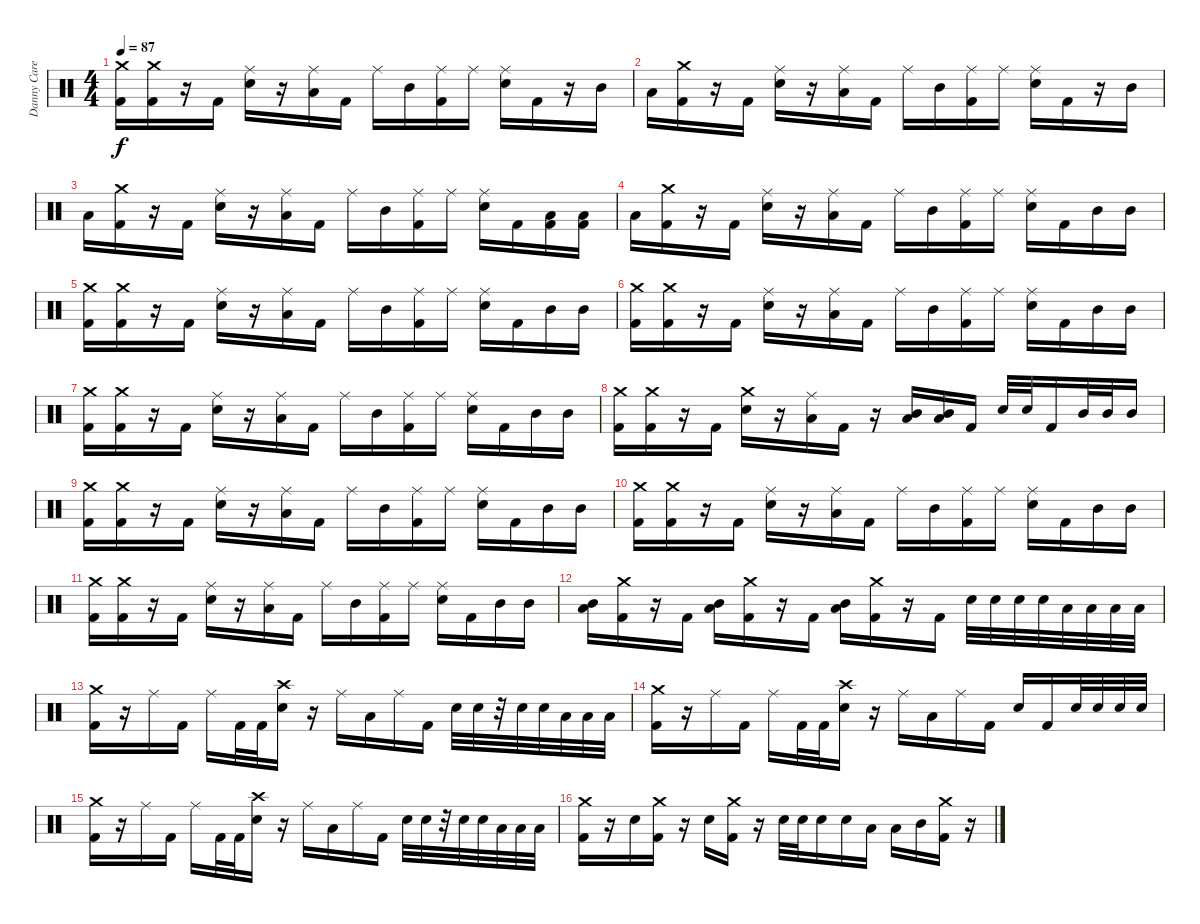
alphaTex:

\track ("Danny Carey" "Danny Care") {instrument percussion}
\staff {score}
\articulation defaults
\ts (4 4)
\tempo 87
\clef neutral
\ks c
("Crash medium (hit)" "Kick (hit) 2").16{dy f} ("Crash medium (hit)" "Kick (hit) 2").16 r.16 "Kick (hit) 2".16 ("Ride (middle)" "Snare (hit) 2").16 r.16 ("Ride (middle)" "Low Tom (hit)").16 "Kick (hit) 2".16 "Ride (middle)".16 "Mid Tom (hit)".16 ("Ride (middle)" "Kick (hit) 2").16 "Ride (middle)".16 ("Ride (middle)" "Snare (hit) 2").16 "Kick (hit) 2".16 r.16 "Mid Tom (hit)".16 |
"Low Floor Tom (hit)".16 ("Crash medium (hit)" "Kick (hit) 2").16 r.16 "Kick (hit) 2".16 ("Ride (middle)" "Snare (hit) 2").16 r.16 ("Ride (middle)" "Low Tom (hit)").16 "Kick (hit) 2".16 "Ride (middle)".16 "Mid Tom (hit)".16 ("Ride (middle)" "Kick (hit) 2").16 "Ride (middle)".16 ("Ride (middle)" "Snare (hit) 2").16 "Kick (hit) 2".16 r.16 "Mid Tom (hit)".16 |
"Low Floor Tom (hit)".16 ("Crash medium (hit)" "Kick (hit) 2").16 r.16 "Kick (hit) 2".16 ("Ride (middle)" "Snare (hit) 2").16 r.16 ("Ride (middle)" "Low Tom (hit)").16 "Kick (hit) 2".16 "Ride (middle)".16 "Mid Tom (hit)".16 ("Ride (middle)" "Kick (hit) 2").16 "Ride (middle)".16 ("Ride (middle)" "Snare (hit) 2").16 "Kick (hit) 2".16 ("Low Floor Tom (hit)" "Kick (hit) 2").16 ("Low Floor Tom (hit)" "Kick (hit) 2").16 |
"Low Floor Tom (hit)".16 ("Crash medium (hit)" "Kick (hit) 2").16 r.16 "Kick (hit) 2".16 ("Ride (middle)" "Snare (hit) 2").16 r.16 ("Ride (middle)" "Low Tom (hit)").16 "Kick (hit) 2".16 "Ride (middle)".16 "Mid Tom (hit)".16 ("Ride (middle)" "Kick (hit) 2").16 "Ride (middle)".16 ("Ride (middle)" "Snare (hit) 2").16 "Kick (hit) 2".16 "Mid Tom (hit)".16 "Mid Tom (hit)".16 |
("Crash medium (hit)" "Kick (hit) 2").16 ("Crash medium (hit)" "Kick (hit) 2").16 r.16 "Kick (hit) 2".16 ("Ride (middle)" "Snare (hit) 2").16 r.16 ("Ride (middle)" "Low Tom (hit)").16 "Kick (hit) 2".16 "Ride (middle)".16 "Mid Tom (hit)".16 ("Ride (middle)" "Kick (hit) 2").16 "Ride (middle)".16 ("Ride (middle)" "Snare (hit) 2").16 "Kick (hit) 2".16 "Mid Tom (hit)".16 "Mid Tom (hit)".16 |
("Crash medium (hit)" "Kick (hit) 2").16 ("Crash medium (hit)" "Kick (hit) 2").16 r.16 "Kick (hit) 2".16 ("Ride (middle)" "Snare (hit) 2").16 r.16 ("Ride (middle)" "Low Tom (hit)").16 "Kick (hit) 2".16 "Ride (middle)".16 "Mid Tom (hit)".16 ("Ride (middle)" "Kick (hit) 2").16 "Ride (middle)".16 ("Ride (middle)" "Snare (hit) 2").16 "Kick (hit) 2".16 "Mid Tom (hit)".16 "Mid Tom (hit)".16 |
("Crash medium (hit)" "Kick (hit) 2").16 ("Crash medium (hit)" "Kick (hit) 2").16 r.16 "Kick (hit) 2".16 ("Ride (middle)" "Snare (hit) 2").16 r.16 ("Ride (middle)" "Low Tom (hit)").16 "Kick (hit) 2".16 "Ride (middle)".16 "Mid Tom (hit)".16 ("Ride (middle)" "Kick (hit) 2").16 "Ride (middle)".16 ("Ride (middle)" "Snare (hit) 2").16 "Kick (hit) 2".16 "Mid Tom (hit)".16 "Mid Tom (hit)".16 |
("Crash medium (hit)" "Kick (hit) 2").16 ("Crash medium (hit)" "Kick (hit) 2").16 r.16 "Kick (hit) 2".16 ("Crash medium (hit)" "Snare (hit) 2").16 r.16 ("Ride (middle)" "Low Tom (hit)").16 "Kick (hit) 2".16 r.16 ("Mid Tom (hit)" "Low Tom (hit)").16 ("Mid Tom (hit)" "Low Tom (hit)").16 "Kick (hit) 2".16 "Snare (hit) 2".32 "Snare (hit) 2".32 "Kick (hit) 2".16 "Mid Tom (hit)".32 "Mid Tom (hit)".32 "Mid Tom (hit)".16 |
("Crash medium (hit)" "Kick (hit) 2").16 ("Crash medium (hit)" "Kick (hit) 2").16 r.16 "Kick (hit) 2".16 ("Ride (middle)" "Snare (hit) 2").16 r.16 ("Ride (middle)" "Low Tom (hit)").16 "Kick (hit) 2".16 "Ride (middle)".16 "Mid Tom (hit)".16 ("Ride (middle)" "Kick (hit) 2").16 "Ride (middle)".16 ("Ride (middle)" "Snare (hit) 2").16 "Kick (hit) 2".16 "Mid Tom (hit)".16 "Mid Tom (hit)".16 |
("Crash medium (hit)" "Kick (hit) 2").16 ("Crash medium (hit)" "Kick (hit) 2").16 r.16 "Kick (hit) 2".16 ("Ride (middle)" "Snare (hit) 2").16 r.16 ("Ride (middle)" "Low Tom (hit)").16 "Kick (hit) 2".16 "Ride (middle)".16 "Mid Tom (hit)".16 ("Ride (middle)" "Kick (hit) 2").16 "Ride (middle)".16 ("Ride (middle)" "Snare (hit) 2").16 "Kick (hit) 2".16 "Mid Tom (hit)".16 "Mid Tom (hit)".16 |
("Crash medium (hit)" "Kick (hit) 2").16 ("Crash medium (hit)" "Kick (hit) 2").16 r.16 "Kick (hit) 2".16 ("Ride (middle)" "Snare (hit) 2").16 r.16 ("Ride (middle)" "Low Tom (hit)").16 "Kick (hit) 2".16 "Ride (middle)".16 "Mid Tom (hit)".16 ("Ride (middle)" "Kick (hit) 2").16 "Ride (middle)".16 ("Ride (middle)" "Snare (hit) 2").16 "Kick (hit) 2".16 "Mid Tom (hit)".16 "Mid Tom (hit)".16 |
("Mid Tom (hit)" "Low Tom (hit)").16 ("Crash medium (hit)" "Kick (hit) 2").16 r.16 "Kick (hit) 2".16 ("Mid Tom (hit)" "Low Tom (hit)").16 ("Crash medium (hit)" "Kick (hit) 2").16 r.16 "Kick (hit) 2".16 ("Mid Tom (hit)" "Low Tom (hit)").16 ("Crash medium (hit)" "Kick (hit) 2").16 r.16 "Kick (hit) 2".16 "Snare (hit) 2".32 "Snare (hit) 2".32 "Snare (hit) 2".32 "Snare (hit) 2".32 "Low Tom (hit)".32 "Low Tom (hit)".32 "Low Tom (hit)".32 "Low Tom (hit)".32 |
("Crash medium (hit)" "Kick (hit) 2").16 r.16 "Ride (middle)".16 "Kick (hit) 2".16 "Ride (middle)".16 "Kick (hit) 2".32 "Kick (hit) 2".32 ("Crash high (hit)" "Snare (hit) 2").16 r.16 "Ride (middle)".16 "Low Tom (hit)".16 "Ride (middle)".16 "Kick (hit) 2".16 "Snare (hit) 2".32 "Snare (hit) 2".32 r.32 "Snare (hit) 2".32 "Snare (hit) 2".32 "Low Tom (hit)".32 "Low Tom (hit)".32 "Low Tom (hit)".32 |
("Crash medium (hit)" "Kick (hit) 2").16 r.16 "Ride (middle)".16 "Kick (hit) 2".16 "Ride (middle)".16 "Kick (hit) 2".32 "Kick (hit) 2".32 ("Crash high (hit)" "Snare (hit) 2").16 r.16 "Ride (middle)".16 "Low Tom (hit)".16 "Ride (middle)".16 "Kick (hit) 2".16 "Snare (hit) 2".16 "Kick (hit) 2".16 "Snare (hit) 2".32 "Snare (hit) 2".32 "Snare (hit) 2".32 "Snare (hit) 2".32 |
("Crash medium (hit)" "Kick (hit) 2").16 r.16 "Ride (middle)".16 "Kick (hit) 2".16 "Ride (middle)".16 "Kick (hit) 2".32 "Kick (hit) 2".32 ("Crash high (hit)" "Snare (hit) 2").16 r.16 "Ride (middle)".16 "Low Tom (hit)".16 "Ride (middle)".16 "Kick (hit) 2".16 "Snare (hit) 2".32 "Snare (hit) 2".32 r.32 "Snare (hit) 2".32 "Snare (hit) 2".32 "Low Tom (hit)".32 "Low Tom (hit)".32 "Low Tom (hit)".32 |
("Crash medium (hit)" "Kick (hit) 2").16 r.16 "Snare (hit) 2".16 ("Crash medium (hit)" "Kick (hit) 2").16 r.16 "Snare (hit) 2".16 ("Crash medium (hit)" "Kick (hit) 2").16 r.16 "Snare (hit) 2".32 "Snare (hit) 2".32 "Snare (hit) 2".16 "Snare (hit) 2".16 "Low Tom (hit)".16 "Low Tom (hit)".16 "Mid Tom (hit)".16 ("Crash medium (hit)" "Kick (hit) 2").16 r.16
